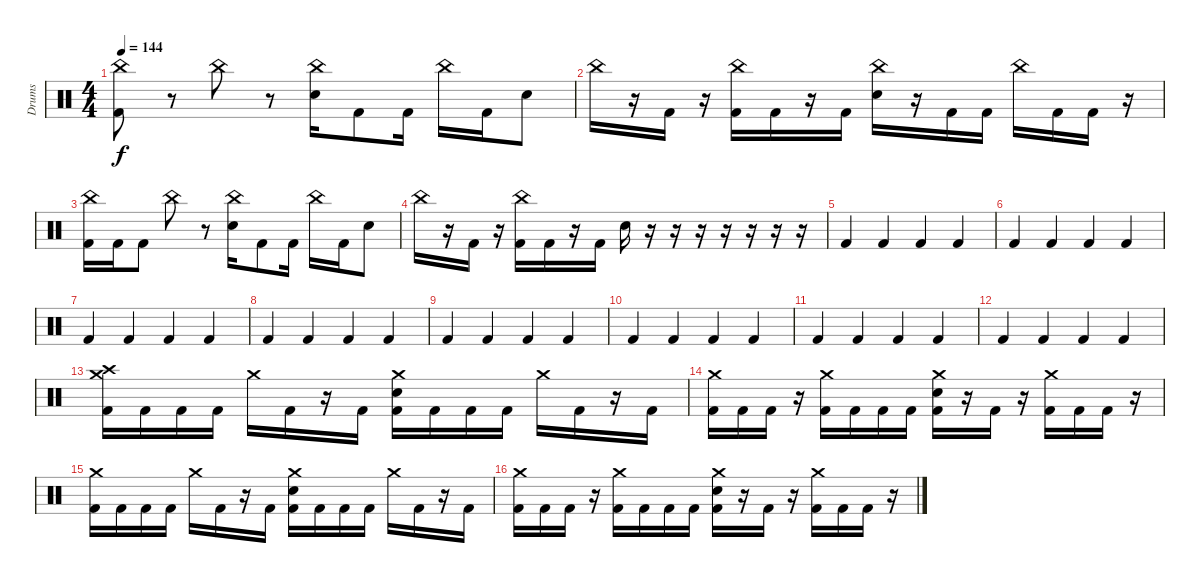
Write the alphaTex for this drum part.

\track ("Drums" "Drums") {instrument percussion}
\staff {score}
\articulation defaults
\ts (4 4)
\tempo 144
\clef neutral
\ks c
("China (hit)" "Kick (hit) 2").8{dy f} r.8 "China (hit)".8 r.8 ("China (hit)" "Electric Snare (hit)").16 "Kick (hit) 2".8 "Kick (hit) 2".16 "China (hit)".16 "Kick (hit) 2".16 "Electric Snare (hit)".8 |
"China (hit)".16 r.16 "Kick (hit) 2".16 r.16 ("China (hit)" "Kick (hit) 2").16 "Kick (hit) 2".16 r.16 "Kick (hit) 2".16 ("China (hit)" "Electric Snare (hit)").16 r.16 "Kick (hit) 2".16 "Kick (hit) 2".16 "China (hit)".16 "Kick (hit) 2".16 "Kick (hit) 2".16 r.16 |
("China (hit)" "Kick (hit) 2").16 "Kick (hit) 2".16 "Kick (hit) 2".8 "China (hit)".8 r.8 ("China (hit)" "Electric Snare (hit)").16 "Kick (hit) 2".8 "Kick (hit) 2".16 "China (hit)".16 "Kick (hit) 2".16 "Electric Snare (hit)".8 |
"China (hit)".16 r.16 "Kick (hit) 2".16 r.16 ("China (hit)" "Kick (hit) 2").16 "Kick (hit) 2".16 r.16 "Kick (hit) 2".16 "Electric Snare (hit)".16 r.16 r.16 r.16 r.16 r.16 r.16 r.16 |
"Kick (hit) 2".4 "Kick (hit) 2".4 "Kick (hit) 2".4 "Kick (hit) 2".4 |
"Kick (hit) 2".4 "Kick (hit) 2".4 "Kick (hit) 2".4 "Kick (hit) 2".4 |
"Kick (hit) 2".4 "Kick (hit) 2".4 "Kick (hit) 2".4 "Kick (hit) 2".4 |
"Kick (hit) 2".4 "Kick (hit) 2".4 "Kick (hit) 2".4 "Kick (hit) 2".4 |
"Kick (hit) 2".4 "Kick (hit) 2".4 "Kick (hit) 2".4 "Kick (hit) 2".4 |
"Kick (hit) 2".4 "Kick (hit) 2".4 "Kick (hit) 2".4 "Kick (hit) 2".4 |
"Kick (hit) 2".4 "Kick (hit) 2".4 "Kick (hit) 2".4 "Kick (hit) 2".4 |
"Kick (hit) 2".4 "Kick (hit) 2".4 "Kick (hit) 2".4 "Kick (hit) 2".4 |
("Crash medium (hit)" "Crash high (hit)" "Kick (hit) 2").16 "Kick (hit) 2".16 "Kick (hit) 2".16 "Kick (hit) 2".16 "Crash medium (hit)".16 "Kick (hit) 2".16 r.16 "Kick (hit) 2".16 ("Crash medium (hit)" "Electric Snare (hit)" "Kick (hit) 2").16 "Kick (hit) 2".16 "Kick (hit) 2".16 "Kick (hit) 2".16 "Crash medium (hit)".16 "Kick (hit) 2".16 r.16 "Kick (hit) 2".16 |
("Crash medium (hit)" "Kick (hit) 2").16 "Kick (hit) 2".16 "Kick (hit) 2".16 r.16 ("Crash medium (hit)" "Kick (hit) 2").16 "Kick (hit) 2".16 "Kick (hit) 2".16 "Kick (hit) 2".16 ("Crash medium (hit)" "Electric Snare (hit)" "Kick (hit) 2").16 r.16 "Kick (hit) 2".16 r.16 ("Crash medium (hit)" "Kick (hit) 2").16 "Kick (hit) 2".16 "Kick (hit) 2".16 r.16 |
("Crash medium (hit)" "Kick (hit) 2").16 "Kick (hit) 2".16 "Kick (hit) 2".16 "Kick (hit) 2".16 "Crash medium (hit)".16 "Kick (hit) 2".16 r.16 "Kick (hit) 2".16 ("Crash medium (hit)" "Electric Snare (hit)" "Kick (hit) 2").16 "Kick (hit) 2".16 "Kick (hit) 2".16 "Kick (hit) 2".16 "Crash medium (hit)".16 "Kick (hit) 2".16 r.16 "Kick (hit) 2".16 |
("Crash medium (hit)" "Kick (hit) 2").16 "Kick (hit) 2".16 "Kick (hit) 2".16 r.16 ("Crash medium (hit)" "Kick (hit) 2").16 "Kick (hit) 2".16 "Kick (hit) 2".16 "Kick (hit) 2".16 ("Crash medium (hit)" "Electric Snare (hit)" "Kick (hit) 2").16 r.16 "Kick (hit) 2".16 r.16 ("Crash medium (hit)" "Kick (hit) 2").16 "Kick (hit) 2".16 "Kick (hit) 2".16 r.16
